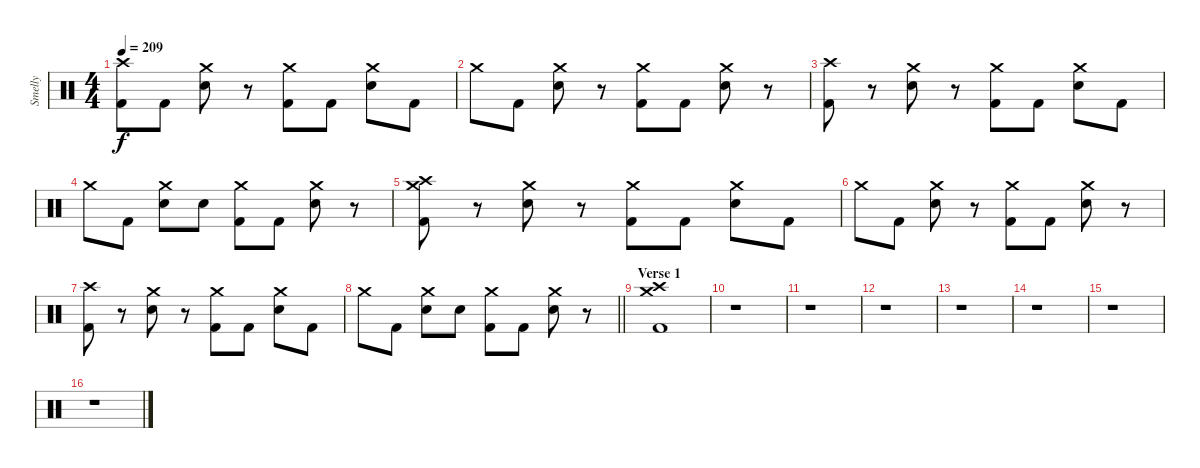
\track ("Smelly" "Smelly") {instrument percussion}
\staff {score}
\articulation defaults
\ts (4 4)
\tempo 209
\clef neutral
\ks c
("Crash high (hit)" "Kick (hit) 2").8{dy f} "Kick (hit) 2".8 ("Crash medium (hit)" "Electric Snare (hit)").8 r.8 ("Crash medium (hit)" "Kick (hit) 2").8 "Kick (hit) 2".8 ("Crash medium (hit)" "Electric Snare (hit)").8 "Kick (hit) 2".8 |
"Crash medium (hit)".8 "Kick (hit) 2".8 ("Crash medium (hit)" "Electric Snare (hit)").8 r.8 ("Crash medium (hit)" "Kick (hit) 2").8 "Kick (hit) 2".8 ("Crash medium (hit)" "Electric Snare (hit)").8 r.8 |
("Crash high (hit)" "Kick (hit) 2").8 r.8 ("Crash medium (hit)" "Electric Snare (hit)").8 r.8 ("Crash medium (hit)" "Kick (hit) 2").8 "Kick (hit) 2".8 ("Crash medium (hit)" "Electric Snare (hit)").8 "Kick (hit) 2".8 |
"Crash medium (hit)".8 "Kick (hit) 2".8 ("Crash medium (hit)" "Electric Snare (hit)").8 "Electric Snare (hit)".8 ("Crash medium (hit)" "Kick (hit) 2").8 "Kick (hit) 2".8 ("Crash medium (hit)" "Electric Snare (hit)").8 r.8 |
("Crash high (hit)" "Crash medium (hit)" "Kick (hit) 2").8 r.8 ("Crash medium (hit)" "Electric Snare (hit)").8 r.8 ("Crash medium (hit)" "Kick (hit) 2").8 "Kick (hit) 2".8 ("Crash medium (hit)" "Electric Snare (hit)").8 "Kick (hit) 2".8 |
"Crash medium (hit)".8 "Kick (hit) 2".8 ("Crash medium (hit)" "Electric Snare (hit)").8 r.8 ("Crash medium (hit)" "Kick (hit) 2").8 "Kick (hit) 2".8 ("Crash medium (hit)" "Electric Snare (hit)").8 r.8 |
("Crash high (hit)" "Kick (hit) 2").8 r.8 ("Crash medium (hit)" "Electric Snare (hit)").8 r.8 ("Crash medium (hit)" "Kick (hit) 2").8 "Kick (hit) 2".8 ("Crash medium (hit)" "Electric Snare (hit)").8 "Kick (hit) 2".8 |
\barLineRight lightlight "Crash medium (hit)".8 "Kick (hit) 2".8
("Crash medium (hit)" "Electric Snare (hit)").8 "Electric Snare (hit)".8 ("Crash medium (hit)" "Kick (hit) 2").8 "Kick (hit) 2".8 ("Crash medium (hit)" "Electric Snare (hit)").8 r.8 |
\section ("" "Verse 1")
("Crash high (hit)" "Crash medium (hit)" "Kick (hit) 2").1 |
r.1 |
r.1 |
r.1 |
r.1 |
r.1 |
r.1 |
r.1
